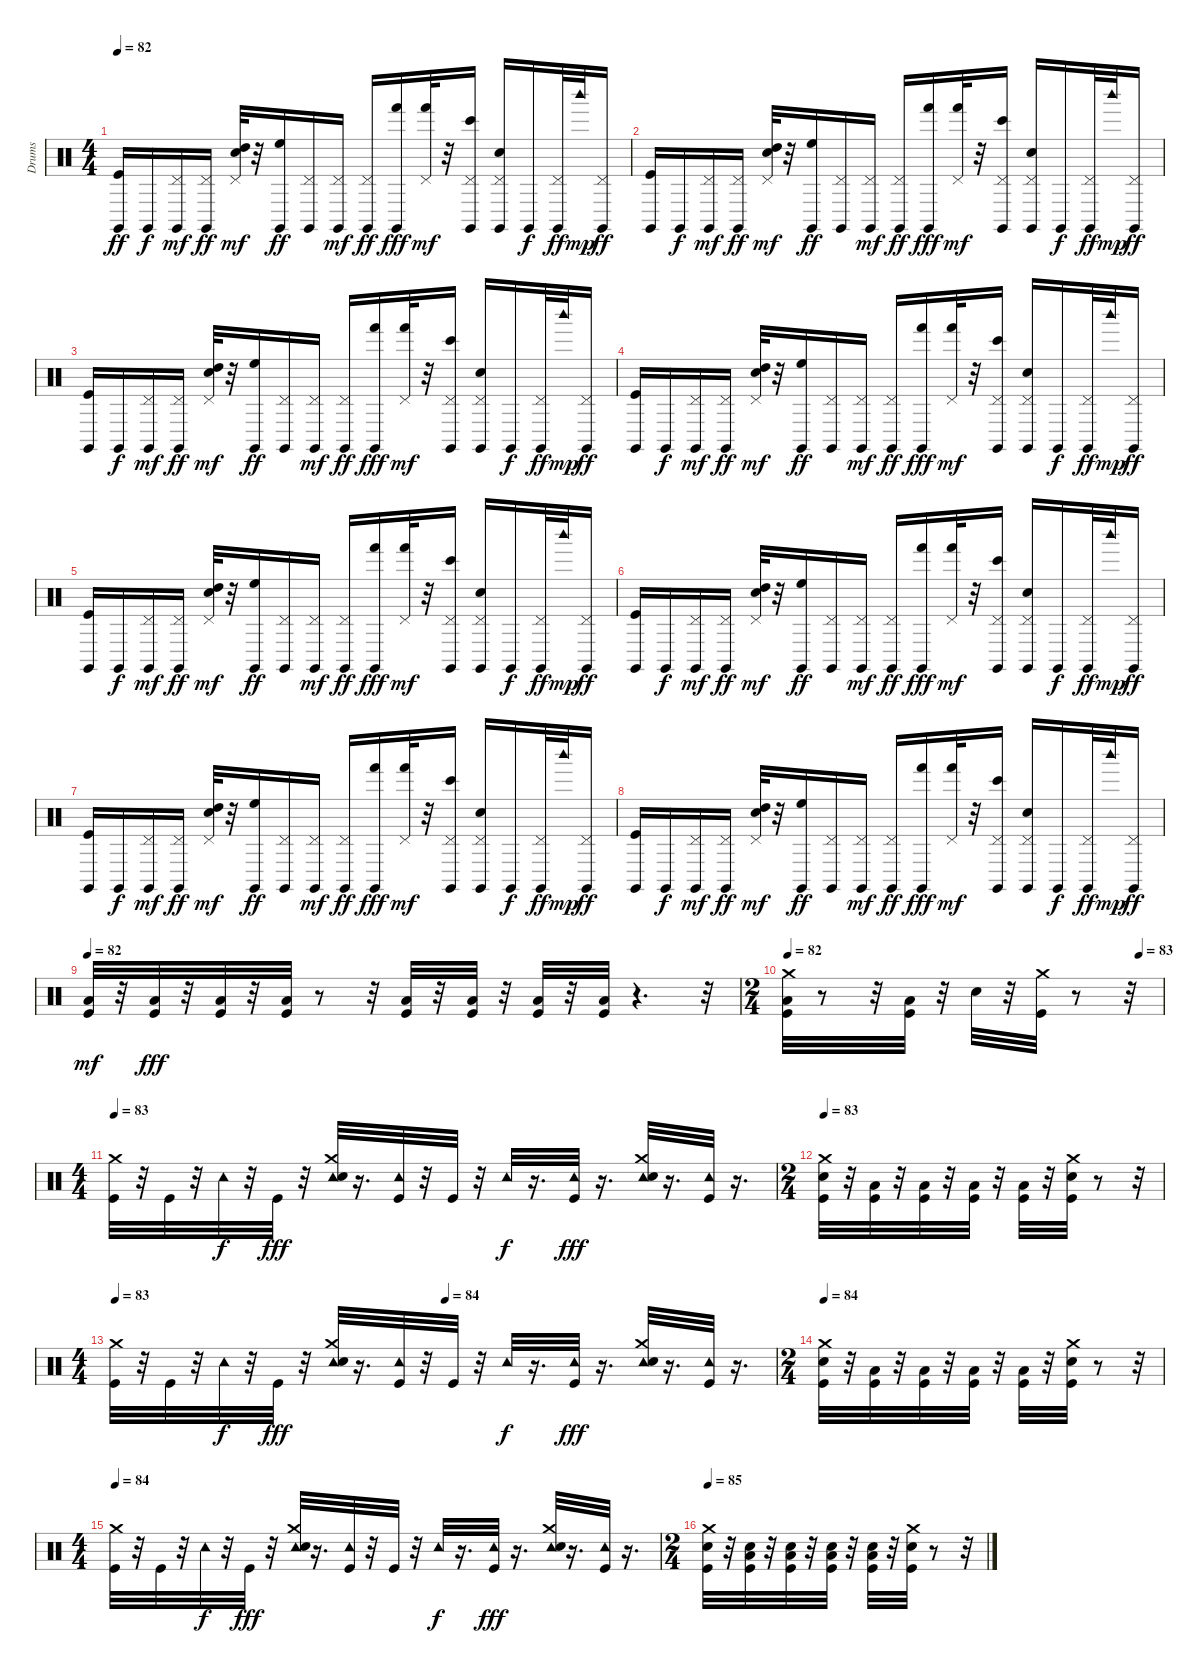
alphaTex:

\track ("Drums" "Drums") {instrument percussion}
\staff {score}
\articulation defaults
\ts (4 4)
\tempo 82
\clef neutral
\ks c
("Kick (hit)" "Claves (hit)").16{dy ff} "Claves (hit)".16{dy f} ("Pedal Hi-Hat (hit)" "Claves (hit)").16{dy mf} ("Pedal Hi-Hat (hit)" "Claves (hit)").16{dy ff} ("Electric Snare (hit)" "High Tom (hit)" "Pedal Hi-Hat (hit)").32{dy mf} r.32 ("High Floor Tom (hit)" "Claves (hit)").16{dy ff} ("Pedal Hi-Hat (hit)" "Claves (hit)").16 ("Pedal Hi-Hat (hit)" "Claves (hit)").16{dy mf} ("Pedal Hi-Hat (hit)" "Claves (hit)").16{dy ff} ("Hand (hit)" "Claves (hit)").16{dy fff} ("Hand (hit)" "Pedal Hi-Hat (hit)").32{dy mf} r.32 ("Bongo High (hit)" "Pedal Hi-Hat (hit)" "Claves (hit)").16 ("Electric Snare (hit)" "Pedal Hi-Hat (hit)" "Claves (hit)").16 "Claves (hit)".16{dy f} ("Pedal Hi-Hat (hit)" "Claves (hit)").32{dy ff} "Woodblock high (hit)".32{dy mp} ("Pedal Hi-Hat (hit)" "Claves (hit)").16{dy ff} |
("Kick (hit)" "Claves (hit)").16 "Claves (hit)".16{dy f} ("Pedal Hi-Hat (hit)" "Claves (hit)").16{dy mf} ("Pedal Hi-Hat (hit)" "Claves (hit)").16{dy ff} ("Electric Snare (hit)" "High Tom (hit)" "Pedal Hi-Hat (hit)").32{dy mf} r.32 ("High Floor Tom (hit)" "Claves (hit)").16{dy ff} ("Pedal Hi-Hat (hit)" "Claves (hit)").16 ("Pedal Hi-Hat (hit)" "Claves (hit)").16{dy mf} ("Pedal Hi-Hat (hit)" "Claves (hit)").16{dy ff} ("Hand (hit)" "Claves (hit)").16{dy fff} ("Hand (hit)" "Pedal Hi-Hat (hit)").32{dy mf} r.32 ("Bongo High (hit)" "Pedal Hi-Hat (hit)" "Claves (hit)").16 ("Electric Snare (hit)" "Pedal Hi-Hat (hit)" "Claves (hit)").16 "Claves (hit)".16{dy f} ("Pedal Hi-Hat (hit)" "Claves (hit)").32{dy ff} "Woodblock high (hit)".32{dy mp} ("Pedal Hi-Hat (hit)" "Claves (hit)").16{dy ff} |
("Kick (hit)" "Claves (hit)").16 "Claves (hit)".16{dy f} ("Pedal Hi-Hat (hit)" "Claves (hit)").16{dy mf} ("Pedal Hi-Hat (hit)" "Claves (hit)").16{dy ff} ("Electric Snare (hit)" "High Tom (hit)" "Pedal Hi-Hat (hit)").32{dy mf} r.32 ("High Floor Tom (hit)" "Claves (hit)").16{dy ff} ("Pedal Hi-Hat (hit)" "Claves (hit)").16 ("Pedal Hi-Hat (hit)" "Claves (hit)").16{dy mf} ("Pedal Hi-Hat (hit)" "Claves (hit)").16{dy ff} ("Hand (hit)" "Claves (hit)").16{dy fff} ("Hand (hit)" "Pedal Hi-Hat (hit)").32{dy mf} r.32 ("Bongo High (hit)" "Pedal Hi-Hat (hit)" "Claves (hit)").16 ("Electric Snare (hit)" "Pedal Hi-Hat (hit)" "Claves (hit)").16 "Claves (hit)".16{dy f} ("Pedal Hi-Hat (hit)" "Claves (hit)").32{dy ff} "Woodblock high (hit)".32{dy mp} ("Pedal Hi-Hat (hit)" "Claves (hit)").16{dy ff} |
("Kick (hit)" "Claves (hit)").16 "Claves (hit)".16{dy f} ("Pedal Hi-Hat (hit)" "Claves (hit)").16{dy mf} ("Pedal Hi-Hat (hit)" "Claves (hit)").16{dy ff} ("Electric Snare (hit)" "High Tom (hit)" "Pedal Hi-Hat (hit)").32{dy mf} r.32 ("High Floor Tom (hit)" "Claves (hit)").16{dy ff} ("Pedal Hi-Hat (hit)" "Claves (hit)").16 ("Pedal Hi-Hat (hit)" "Claves (hit)").16{dy mf} ("Pedal Hi-Hat (hit)" "Claves (hit)").16{dy ff} ("Hand (hit)" "Claves (hit)").16{dy fff} ("Hand (hit)" "Pedal Hi-Hat (hit)").32{dy mf} r.32 ("Bongo High (hit)" "Pedal Hi-Hat (hit)" "Claves (hit)").16 ("Electric Snare (hit)" "Pedal Hi-Hat (hit)" "Claves (hit)").16 "Claves (hit)".16{dy f} ("Pedal Hi-Hat (hit)" "Claves (hit)").32{dy ff} "Woodblock high (hit)".32{dy mp} ("Pedal Hi-Hat (hit)" "Claves (hit)").16{dy ff} |
("Kick (hit)" "Claves (hit)").16 "Claves (hit)".16{dy f} ("Pedal Hi-Hat (hit)" "Claves (hit)").16{dy mf} ("Pedal Hi-Hat (hit)" "Claves (hit)").16{dy ff} ("Electric Snare (hit)" "High Tom (hit)" "Pedal Hi-Hat (hit)").32{dy mf} r.32 ("High Floor Tom (hit)" "Claves (hit)").16{dy ff} ("Pedal Hi-Hat (hit)" "Claves (hit)").16 ("Pedal Hi-Hat (hit)" "Claves (hit)").16{dy mf} ("Pedal Hi-Hat (hit)" "Claves (hit)").16{dy ff} ("Hand (hit)" "Claves (hit)").16{dy fff} ("Hand (hit)" "Pedal Hi-Hat (hit)").32{dy mf} r.32 ("Bongo High (hit)" "Pedal Hi-Hat (hit)" "Claves (hit)").16 ("Electric Snare (hit)" "Pedal Hi-Hat (hit)" "Claves (hit)").16 "Claves (hit)".16{dy f} ("Pedal Hi-Hat (hit)" "Claves (hit)").32{dy ff} "Woodblock high (hit)".32{dy mp} ("Pedal Hi-Hat (hit)" "Claves (hit)").16{dy ff} |
("Kick (hit)" "Claves (hit)").16 "Claves (hit)".16{dy f} ("Pedal Hi-Hat (hit)" "Claves (hit)").16{dy mf} ("Pedal Hi-Hat (hit)" "Claves (hit)").16{dy ff} ("Electric Snare (hit)" "High Tom (hit)" "Pedal Hi-Hat (hit)").32{dy mf} r.32 ("High Floor Tom (hit)" "Claves (hit)").16{dy ff} ("Pedal Hi-Hat (hit)" "Claves (hit)").16 ("Pedal Hi-Hat (hit)" "Claves (hit)").16{dy mf} ("Pedal Hi-Hat (hit)" "Claves (hit)").16{dy ff} ("Hand (hit)" "Claves (hit)").16{dy fff} ("Hand (hit)" "Pedal Hi-Hat (hit)").32{dy mf} r.32 ("Bongo High (hit)" "Pedal Hi-Hat (hit)" "Claves (hit)").16 ("Electric Snare (hit)" "Pedal Hi-Hat (hit)" "Claves (hit)").16 "Claves (hit)".16{dy f} ("Pedal Hi-Hat (hit)" "Claves (hit)").32{dy ff} "Woodblock high (hit)".32{dy mp} ("Pedal Hi-Hat (hit)" "Claves (hit)").16{dy ff} |
("Kick (hit)" "Claves (hit)").16 "Claves (hit)".16{dy f} ("Pedal Hi-Hat (hit)" "Claves (hit)").16{dy mf} ("Pedal Hi-Hat (hit)" "Claves (hit)").16{dy ff} ("Electric Snare (hit)" "High Tom (hit)" "Pedal Hi-Hat (hit)").32{dy mf} r.32 ("High Floor Tom (hit)" "Claves (hit)").16{dy ff} ("Pedal Hi-Hat (hit)" "Claves (hit)").16 ("Pedal Hi-Hat (hit)" "Claves (hit)").16{dy mf} ("Pedal Hi-Hat (hit)" "Claves (hit)").16{dy ff} ("Hand (hit)" "Claves (hit)").16{dy fff} ("Hand (hit)" "Pedal Hi-Hat (hit)").32{dy mf} r.32 ("Bongo High (hit)" "Pedal Hi-Hat (hit)" "Claves (hit)").16 ("Electric Snare (hit)" "Pedal Hi-Hat (hit)" "Claves (hit)").16 "Claves (hit)".16{dy f} ("Pedal Hi-Hat (hit)" "Claves (hit)").32{dy ff} "Woodblock high (hit)".32{dy mp} ("Pedal Hi-Hat (hit)" "Claves (hit)").16{dy ff} |
("Kick (hit)" "Claves (hit)").16 "Claves (hit)".16{dy f} ("Pedal Hi-Hat (hit)" "Claves (hit)").16{dy mf} ("Pedal Hi-Hat (hit)" "Claves (hit)").16{dy ff} ("Electric Snare (hit)" "High Tom (hit)" "Pedal Hi-Hat (hit)").32{dy mf} r.32 ("High Floor Tom (hit)" "Claves (hit)").16{dy ff} ("Pedal Hi-Hat (hit)" "Claves (hit)").16 ("Pedal Hi-Hat (hit)" "Claves (hit)").16{dy mf} ("Pedal Hi-Hat (hit)" "Claves (hit)").16{dy ff} ("Hand (hit)" "Claves (hit)").16{dy fff} ("Hand (hit)" "Pedal Hi-Hat (hit)").32{dy mf} r.32 ("Bongo High (hit)" "Pedal Hi-Hat (hit)" "Claves (hit)").16 ("Electric Snare (hit)" "Pedal Hi-Hat (hit)" "Claves (hit)").16 "Claves (hit)".16{dy f} ("Pedal Hi-Hat (hit)" "Claves (hit)").32{dy ff} "Woodblock high (hit)".32{dy mp} ("Pedal Hi-Hat (hit)" "Claves (hit)").16{dy ff} |
\tempo 82
("Kick (hit)" "Low Floor Tom (hit)").32{dy mf} r.32 ("Low Floor Tom (hit)" "Kick (hit)").32{dy fff} r.32 ("Low Floor Tom (hit)" "Kick (hit)").32 r.32 ("Low Floor Tom (hit)" "Kick (hit)").32 r.8 r.32 ("Low Floor Tom (hit)" "Kick (hit)").32 r.32 ("Low Floor Tom (hit)" "Kick (hit)").32 r.32 ("Low Floor Tom (hit)" "Kick (hit)").32 r.32 ("Low Floor Tom (hit)" "Kick (hit)").32 r.4{d} r.32 |
\ts (2 4)
\tempo 82
\tempo (83 0.9375)
("Low Floor Tom (hit)" "Crash medium (hit)" "Kick (hit)").32{volume 16} r.8 r.32 ("Low Floor Tom (hit)" "Kick (hit)").32 r.32 "Electric Snare (hit)".32 r.32 ("Crash medium (hit)" "Kick (hit)").32 r.8 r.32 |
\ts (4 4)
\tempo 83
("Kick (hit)" "Crash medium (hit)").32 r.32 "Kick (hit)".32 r.32 "Tambourine (hit)".32{dy f} r.32 "Kick (hit)".32{dy fff} r.32 ("Crash medium (hit)" "Tambourine (hit)" "Electric Snare (hit)").32 r.16{d} ("Tambourine (hit)" "Kick (hit)").32 r.32 "Kick (hit)".32 r.32 "Tambourine (hit)".32{dy f} r.16{d} ("Kick (hit)" "Tambourine (hit)").32{dy fff} r.16{d} ("Crash medium (hit)" "Tambourine (hit)" "Electric Snare (hit)").32 r.16{d} ("Kick (hit)" "Tambourine (hit)").32 r.16{d} |
\ts (2 4)
\tempo 83
("Electric Snare (hit)" "Crash medium (hit)" "Kick (hit)").32 r.32 ("Low Floor Tom (hit)" "Kick (hit)").32 r.32 ("Low Floor Tom (hit)" "Kick (hit)").32 r.32 ("Low Floor Tom (hit)" "Kick (hit)").32 r.32 ("Low Floor Tom (hit)" "Kick (hit)").32 r.32 ("Electric Snare (hit)" "Crash medium (hit)" "Kick (hit)").32 r.8 r.32 |
\ts (4 4)
\tempo 83
\tempo (84 0.5)
("Kick (hit)" "Crash medium (hit)").32 r.32 "Kick (hit)".32 r.32 "Tambourine (hit)".32{dy f} r.32 "Kick (hit)".32{dy fff} r.32 ("Crash medium (hit)" "Tambourine (hit)" "Electric Snare (hit)").32 r.16{d} ("Tambourine (hit)" "Kick (hit)").32 r.32 "Kick (hit)".32 r.32 "Tambourine (hit)".32{dy f} r.16{d} ("Kick (hit)" "Tambourine (hit)").32{dy fff} r.16{d} ("Crash medium (hit)" "Tambourine (hit)" "Electric Snare (hit)").32 r.16{d} ("Kick (hit)" "Tambourine (hit)").32 r.16{d} |
\ts (2 4)
\tempo 84
("Electric Snare (hit)" "Crash medium (hit)" "Kick (hit)").32 r.32 ("Low Floor Tom (hit)" "Kick (hit)").32 r.32 ("Low Floor Tom (hit)" "Kick (hit)").32 r.32 ("Low Floor Tom (hit)" "Kick (hit)").32 r.32 ("Low Floor Tom (hit)" "Kick (hit)").32 r.32 ("Electric Snare (hit)" "Crash medium (hit)" "Kick (hit)").32 r.8 r.32 |
\ts (4 4)
\tempo 84
("Kick (hit)" "Crash medium (hit)").32 r.32 "Kick (hit)".32 r.32 "Tambourine (hit)".32{dy f} r.32 "Kick (hit)".32{dy fff} r.32 ("Crash medium (hit)" "Tambourine (hit)" "Electric Snare (hit)").32 r.16{d} ("Tambourine (hit)" "Kick (hit)").32 r.32 "Kick (hit)".32 r.32 "Tambourine (hit)".32{dy f} r.16{d} ("Kick (hit)" "Tambourine (hit)").32{dy fff} r.16{d} ("Crash medium (hit)" "Tambourine (hit)" "Electric Snare (hit)").32 r.16{d} ("Kick (hit)" "Tambourine (hit)").32 r.16{d} |
\ts (2 4)
\tempo 85
("Electric Snare (hit)" "Crash medium (hit)" "Kick (hit)").32 r.32 ("Electric Snare (hit)" "Low Floor Tom (hit)" "Kick (hit)").32 r.32 ("Electric Snare (hit)" "Low Floor Tom (hit)" "Kick (hit)").32 r.32 ("Electric Snare (hit)" "Low Floor Tom (hit)" "Kick (hit)").32 r.32 ("Electric Snare (hit)" "Low Floor Tom (hit)" "Kick (hit)").32 r.32 ("Electric Snare (hit)" "Crash medium (hit)" "Kick (hit)").32 r.8 r.32
